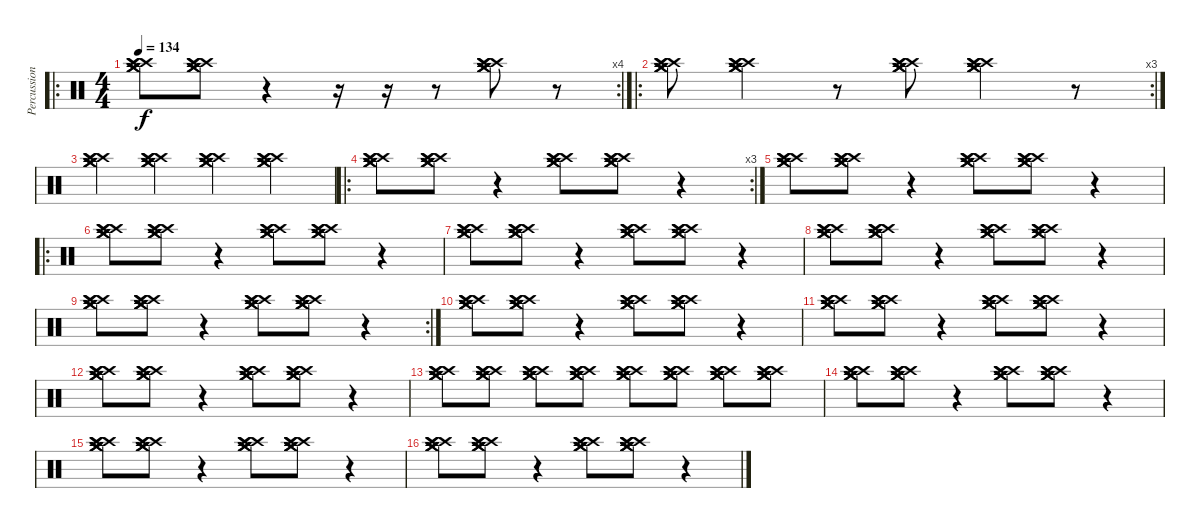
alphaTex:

\track ("Percussion 2" "Percussion") {instrument percussion}
\staff {score}
\articulation defaults
\ro
\rc 4
\ts (4 4)
\tempo 134
\clef neutral
\ks c
("Crash medium (hit)" "Crash medium (hit)" "Crash medium (hit)" "Crash high (hit)" "Crash high (hit)" "Crash high (hit)").8{dy f} ("Crash medium (hit)" "Crash medium (hit)" "Crash medium (hit)" "Crash high (hit)" "Crash high (hit)" "Crash high (hit)").8 r.4 r.16 r.16 r.8 ("Crash medium (hit)" "Crash medium (hit)" "Crash medium (hit)" "Crash high (hit)" "Crash high (hit)" "Crash high (hit)").8 r.8 |
\ro
\rc 3
("Crash medium (hit)" "Crash medium (hit)" "Crash medium (hit)" "Crash high (hit)" "Crash high (hit)" "Crash high (hit)").8 ("Crash medium (hit)" "Crash medium (hit)" "Crash medium (hit)" "Crash high (hit)" "Crash high (hit)" "Crash high (hit)").4 r.8 ("Crash medium (hit)" "Crash medium (hit)" "Crash medium (hit)" "Crash high (hit)" "Crash high (hit)" "Crash high (hit)").8 ("Crash medium (hit)" "Crash medium (hit)" "Crash medium (hit)" "Crash high (hit)" "Crash high (hit)" "Crash high (hit)").4 r.8 |
("Crash medium (hit)" "Crash medium (hit)" "Crash medium (hit)" "Crash high (hit)" "Crash high (hit)" "Crash high (hit)").4 ("Crash medium (hit)" "Crash medium (hit)" "Crash medium (hit)" "Crash high (hit)" "Crash high (hit)" "Crash high (hit)").4 ("Crash medium (hit)" "Crash medium (hit)" "Crash medium (hit)" "Crash high (hit)" "Crash high (hit)" "Crash high (hit)").4 ("Crash medium (hit)" "Crash medium (hit)" "Crash medium (hit)" "Crash high (hit)" "Crash high (hit)" "Crash high (hit)").4 |
\ro
\rc 3
("Crash medium (hit)" "Crash medium (hit)" "Crash medium (hit)" "Crash high (hit)" "Crash high (hit)" "Crash high (hit)").8 ("Crash medium (hit)" "Crash medium (hit)" "Crash medium (hit)" "Crash high (hit)" "Crash high (hit)" "Crash high (hit)").8 r.4 ("Crash medium (hit)" "Crash medium (hit)" "Crash medium (hit)" "Crash high (hit)" "Crash high (hit)" "Crash high (hit)").8 ("Crash medium (hit)" "Crash medium (hit)" "Crash medium (hit)" "Crash high (hit)" "Crash high (hit)" "Crash high (hit)").8 r.4 |
("Crash medium (hit)" "Crash medium (hit)" "Crash medium (hit)" "Crash high (hit)" "Crash high (hit)" "Crash high (hit)").8 ("Crash medium (hit)" "Crash medium (hit)" "Crash medium (hit)" "Crash high (hit)" "Crash high (hit)" "Crash high (hit)").8 r.4 ("Crash medium (hit)" "Crash medium (hit)" "Crash medium (hit)" "Crash high (hit)" "Crash high (hit)" "Crash high (hit)").8 ("Crash medium (hit)" "Crash medium (hit)" "Crash medium (hit)" "Crash high (hit)" "Crash high (hit)" "Crash high (hit)").8 r.4 |
\ro
("Crash medium (hit)" "Crash medium (hit)" "Crash medium (hit)" "Crash high (hit)" "Crash high (hit)" "Crash high (hit)").8 ("Crash medium (hit)" "Crash medium (hit)" "Crash medium (hit)" "Crash high (hit)" "Crash high (hit)" "Crash high (hit)").8 r.4 ("Crash medium (hit)" "Crash medium (hit)" "Crash medium (hit)" "Crash high (hit)" "Crash high (hit)" "Crash high (hit)").8 ("Crash medium (hit)" "Crash medium (hit)" "Crash medium (hit)" "Crash high (hit)" "Crash high (hit)" "Crash high (hit)").8 r.4 |
("Crash medium (hit)" "Crash medium (hit)" "Crash medium (hit)" "Crash high (hit)" "Crash high (hit)" "Crash high (hit)").8 ("Crash medium (hit)" "Crash medium (hit)" "Crash medium (hit)" "Crash high (hit)" "Crash high (hit)" "Crash high (hit)").8 r.4 ("Crash medium (hit)" "Crash medium (hit)" "Crash medium (hit)" "Crash high (hit)" "Crash high (hit)" "Crash high (hit)").8 ("Crash medium (hit)" "Crash medium (hit)" "Crash medium (hit)" "Crash high (hit)" "Crash high (hit)" "Crash high (hit)").8 r.4 |
("Crash medium (hit)" "Crash medium (hit)" "Crash medium (hit)" "Crash high (hit)" "Crash high (hit)" "Crash high (hit)").8 ("Crash medium (hit)" "Crash medium (hit)" "Crash medium (hit)" "Crash high (hit)" "Crash high (hit)" "Crash high (hit)").8 r.4 ("Crash medium (hit)" "Crash medium (hit)" "Crash medium (hit)" "Crash high (hit)" "Crash high (hit)" "Crash high (hit)").8 ("Crash medium (hit)" "Crash medium (hit)" "Crash medium (hit)" "Crash high (hit)" "Crash high (hit)" "Crash high (hit)").8 r.4 |
\rc 2
("Crash medium (hit)" "Crash medium (hit)" "Crash medium (hit)" "Crash high (hit)" "Crash high (hit)" "Crash high (hit)").8 ("Crash medium (hit)" "Crash medium (hit)" "Crash medium (hit)" "Crash high (hit)" "Crash high (hit)" "Crash high (hit)").8 r.4 ("Crash medium (hit)" "Crash medium (hit)" "Crash medium (hit)" "Crash high (hit)" "Crash high (hit)" "Crash high (hit)").8 ("Crash medium (hit)" "Crash medium (hit)" "Crash medium (hit)" "Crash high (hit)" "Crash high (hit)" "Crash high (hit)").8 r.4 |
("Crash medium (hit)" "Crash medium (hit)" "Crash medium (hit)" "Crash high (hit)" "Crash high (hit)" "Crash high (hit)").8 ("Crash medium (hit)" "Crash medium (hit)" "Crash medium (hit)" "Crash high (hit)" "Crash high (hit)" "Crash high (hit)").8 r.4 ("Crash medium (hit)" "Crash medium (hit)" "Crash medium (hit)" "Crash high (hit)" "Crash high (hit)" "Crash high (hit)").8 ("Crash medium (hit)" "Crash medium (hit)" "Crash medium (hit)" "Crash high (hit)" "Crash high (hit)" "Crash high (hit)").8 r.4 |
("Crash medium (hit)" "Crash medium (hit)" "Crash medium (hit)" "Crash high (hit)" "Crash high (hit)" "Crash high (hit)").8 ("Crash medium (hit)" "Crash medium (hit)" "Crash medium (hit)" "Crash high (hit)" "Crash high (hit)" "Crash high (hit)").8 r.4 ("Crash medium (hit)" "Crash medium (hit)" "Crash medium (hit)" "Crash high (hit)" "Crash high (hit)" "Crash high (hit)").8 ("Crash medium (hit)" "Crash medium (hit)" "Crash medium (hit)" "Crash high (hit)" "Crash high (hit)" "Crash high (hit)").8 r.4 |
("Crash medium (hit)" "Crash medium (hit)" "Crash medium (hit)" "Crash high (hit)" "Crash high (hit)" "Crash high (hit)").8 ("Crash medium (hit)" "Crash medium (hit)" "Crash medium (hit)" "Crash high (hit)" "Crash high (hit)" "Crash high (hit)").8 r.4 ("Crash medium (hit)" "Crash medium (hit)" "Crash medium (hit)" "Crash high (hit)" "Crash high (hit)" "Crash high (hit)").8 ("Crash medium (hit)" "Crash medium (hit)" "Crash medium (hit)" "Crash high (hit)" "Crash high (hit)" "Crash high (hit)").8 r.4 |
("Crash medium (hit)" "Crash medium (hit)" "Crash medium (hit)" "Crash high (hit)" "Crash high (hit)" "Crash high (hit)").8 ("Crash medium (hit)" "Crash medium (hit)" "Crash medium (hit)" "Crash high (hit)" "Crash high (hit)" "Crash high (hit)").8 ("Crash medium (hit)" "Crash medium (hit)" "Crash medium (hit)" "Crash high (hit)" "Crash high (hit)" "Crash high (hit)").8 ("Crash medium (hit)" "Crash medium (hit)" "Crash medium (hit)" "Crash high (hit)" "Crash high (hit)" "Crash high (hit)").8 ("Crash medium (hit)" "Crash medium (hit)" "Crash medium (hit)" "Crash high (hit)" "Crash high (hit)" "Crash high (hit)").8 ("Crash medium (hit)" "Crash medium (hit)" "Crash medium (hit)" "Crash high (hit)" "Crash high (hit)" "Crash high (hit)").8 ("Crash medium (hit)" "Crash medium (hit)" "Crash medium (hit)" "Crash high (hit)" "Crash high (hit)" "Crash high (hit)").8 ("Crash medium (hit)" "Crash medium (hit)" "Crash medium (hit)" "Crash high (hit)" "Crash high (hit)" "Crash high (hit)").8 |
("Crash medium (hit)" "Crash medium (hit)" "Crash medium (hit)" "Crash high (hit)" "Crash high (hit)" "Crash high (hit)").8 ("Crash medium (hit)" "Crash medium (hit)" "Crash medium (hit)" "Crash high (hit)" "Crash high (hit)" "Crash high (hit)").8 r.4 ("Crash medium (hit)" "Crash medium (hit)" "Crash medium (hit)" "Crash high (hit)" "Crash high (hit)" "Crash high (hit)").8 ("Crash medium (hit)" "Crash medium (hit)" "Crash medium (hit)" "Crash high (hit)" "Crash high (hit)" "Crash high (hit)").8 r.4 |
("Crash medium (hit)" "Crash medium (hit)" "Crash medium (hit)" "Crash high (hit)" "Crash high (hit)" "Crash high (hit)").8 ("Crash medium (hit)" "Crash medium (hit)" "Crash medium (hit)" "Crash high (hit)" "Crash high (hit)" "Crash high (hit)").8 r.4 ("Crash medium (hit)" "Crash medium (hit)" "Crash medium (hit)" "Crash high (hit)" "Crash high (hit)" "Crash high (hit)").8 ("Crash medium (hit)" "Crash medium (hit)" "Crash medium (hit)" "Crash high (hit)" "Crash high (hit)" "Crash high (hit)").8 r.4 |
("Crash medium (hit)" "Crash medium (hit)" "Crash medium (hit)" "Crash high (hit)" "Crash high (hit)" "Crash high (hit)").8 ("Crash medium (hit)" "Crash medium (hit)" "Crash medium (hit)" "Crash high (hit)" "Crash high (hit)" "Crash high (hit)").8 r.4 ("Crash medium (hit)" "Crash medium (hit)" "Crash medium (hit)" "Crash high (hit)" "Crash high (hit)" "Crash high (hit)").8 ("Crash medium (hit)" "Crash medium (hit)" "Crash medium (hit)" "Crash high (hit)" "Crash high (hit)" "Crash high (hit)").8 r.4
